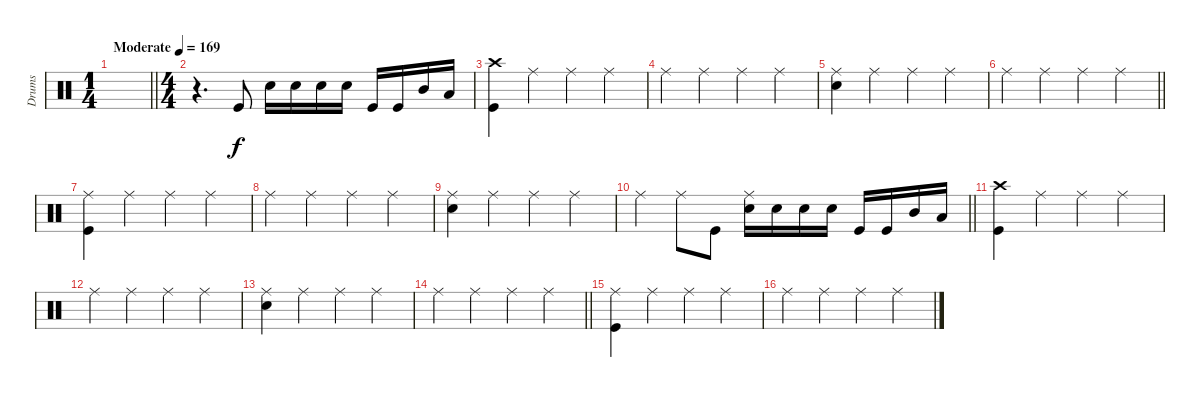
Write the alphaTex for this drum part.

\track ("Drums" "Drums") {instrument percussion}
\staff
\articulation defaults
\ts (1 4)
\tempo (169 "Moderate")
\clef neutral
\barLineRight lightlight
\ks c
|
\ts (4 4)
r.4{d} "Kick (hit)".8 "Electric Snare (hit)".16 "Electric Snare (hit)".16 "Electric Snare (hit)".16 "Electric Snare (hit)".16 "Kick (hit)".16 "Kick (hit)".16 "Mid Tom (hit)".16 "Low Tom (hit)".16 |
("Crash high (hit)" "Kick (hit)").4 "Ride (middle)".4 "Ride (middle)".4 "Ride (middle)".4 |
"Ride (middle)".4 "Ride (middle)".4 "Ride (middle)".4 "Ride (middle)".4 |
("Ride (middle)" "Electric Snare (hit)").4 "Ride (middle)".4 "Ride (middle)".4 "Ride (middle)".4 |
\barLineRight lightlight "Ride (middle)".4 "Ride (middle)".4 "Ride (middle)".4 "Ride (middle)".4
|
("Ride (middle)" "Kick (hit)").4 "Ride (middle)".4 "Ride (middle)".4 "Ride (middle)".4 |
"Ride (middle)".4 "Ride (middle)".4 "Ride (middle)".4 "Ride (middle)".4 |
("Ride (middle)" "Electric Snare (hit)").4 "Ride (middle)".4 "Ride (middle)".4 "Ride (middle)".4 |
\barLineRight lightlight "Ride (middle)".4 "Ride (middle)".8 "Kick (hit)".8
("Ride (middle)" "Electric Snare (hit)").16 "Electric Snare (hit)".16 "Electric Snare (hit)".16 "Electric Snare (hit)".16 "Kick (hit)".16 "Kick (hit)".16 "Mid Tom (hit)".16 "Low Tom (hit)".16 |
("Crash high (hit)" "Kick (hit)").4 "Ride (middle)".4 "Ride (middle)".4 "Ride (middle)".4 |
"Ride (middle)".4 "Ride (middle)".4 "Ride (middle)".4 "Ride (middle)".4 |
("Ride (middle)" "Electric Snare (hit)").4 "Ride (middle)".4 "Ride (middle)".4 "Ride (middle)".4 |
\barLineRight lightlight "Ride (middle)".4 "Ride (middle)".4 "Ride (middle)".4 "Ride (middle)".4
|
("Ride (middle)" "Kick (hit)").4 "Ride (middle)".4 "Ride (middle)".4 "Ride (middle)".4 |
"Ride (middle)".4 "Ride (middle)".4 "Ride (middle)".4 "Ride (middle)".4
